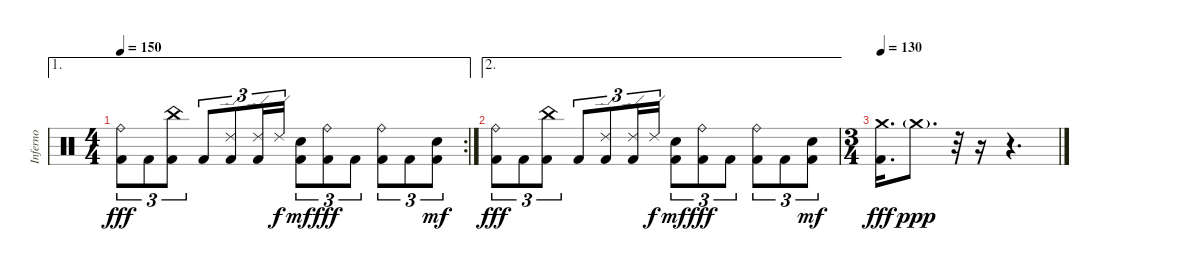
\track ("Inferno" "Inferno") {instrument percussion}
\staff {score}
\articulation defaults
\ae 1
\rc 2
\ts (4 4)
\tempo 150
\clef neutral
\ks c
("Kick (hit) 2" "Ride (bell)").8{tu (3 2) dy fff} "Kick (hit) 2".8{tu (3 2)} ("Kick (hit) 2" "China (hit)").8{tu (3 2)} "Kick (hit) 2".8{tu (3 2)} ("Kick (hit) 2" "Ride (edge) 2").8{tu (3 2)} ("Kick (hit) 2" "Ride (edge) 2").16{tu (3 2)} "Ride (edge) 2".16{tu (3 2) dy f} ("Kick (hit) 2" "Electric Snare (hit)").8{tu (3 2) dy mf} ("Kick (hit) 2" "Ride (bell)").8{tu (3 2) dy fff} "Kick (hit) 2".8{tu (3 2)} ("Kick (hit) 2" "Ride (bell)").8{tu (3 2)} "Kick (hit) 2".8{tu (3 2)} ("Kick (hit) 2" "Electric Snare (hit)").8{tu (3 2) dy mf} |
\ae 2
("Kick (hit) 2" "Ride (bell)").8{tu (3 2) dy fff} "Kick (hit) 2".8{tu (3 2)} ("Kick (hit) 2" "China (hit)").8{tu (3 2)} "Kick (hit) 2".8{tu (3 2)} ("Kick (hit) 2" "Ride (edge) 2").8{tu (3 2)} ("Kick (hit) 2" "Ride (edge) 2").16{tu (3 2)} "Ride (edge) 2".16{tu (3 2) dy f} ("Kick (hit) 2" "Electric Snare (hit)").8{tu (3 2) dy mf} ("Kick (hit) 2" "Ride (bell)").8{tu (3 2) dy fff} "Kick (hit) 2".8{tu (3 2)} ("Kick (hit) 2" "Ride (bell)").8{tu (3 2)} "Kick (hit) 2".8{tu (3 2)} ("Kick (hit) 2" "Electric Snare (hit)").8{tu (3 2) dy mf} |
\ts (3 4)
\tempo 130
("Kick (hit) 2" "Crash medium (hit)").16{d dy fff} "Crash medium (hit)"{g}.8{d dy ppp} r.32 r.16 r.4{d}
